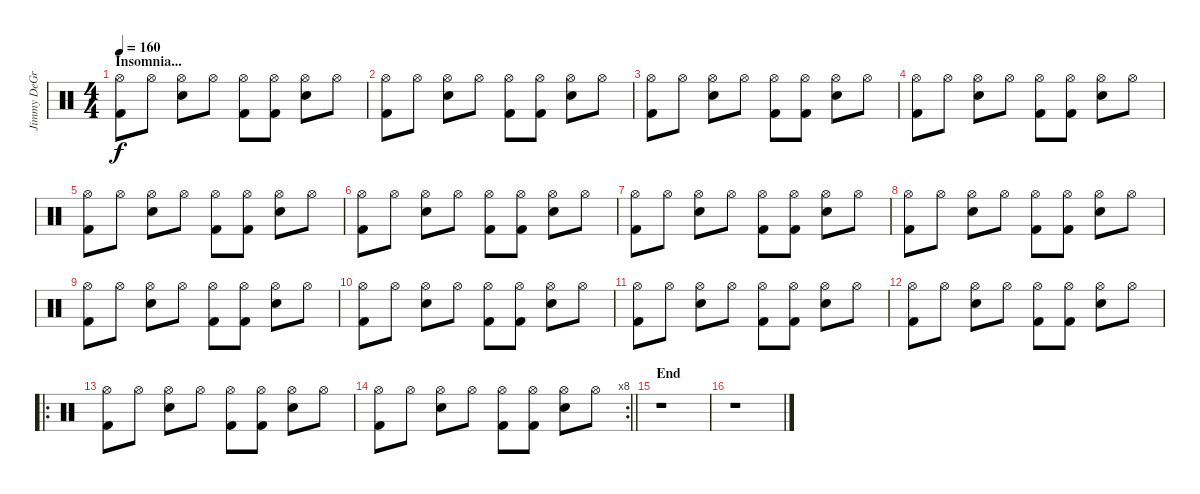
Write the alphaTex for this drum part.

\track ("Jimmy DeGrasso" "Jimmy DeGr") {instrument percussion}
\staff {score}
\articulation defaults
\ts (4 4)
\section ("" "Insomnia...")
\tempo 160
\clef neutral
\ks c
("Hi-Hat (open)" "Kick (hit) 2").8{dy f} "Hi-Hat (open)".8 ("Hi-Hat (open)" "Snare (hit) 2").8 "Hi-Hat (open)".8 ("Hi-Hat (open)" "Kick (hit) 2").8 ("Hi-Hat (open)" "Kick (hit) 2").8 ("Hi-Hat (open)" "Snare (hit) 2").8 "Hi-Hat (open)".8 |
("Hi-Hat (open)" "Kick (hit) 2").8 "Hi-Hat (open)".8 ("Hi-Hat (open)" "Snare (hit) 2").8 "Hi-Hat (open)".8 ("Hi-Hat (open)" "Kick (hit) 2").8 ("Hi-Hat (open)" "Kick (hit) 2").8 ("Hi-Hat (open)" "Snare (hit) 2").8 "Hi-Hat (open)".8 |
("Hi-Hat (open)" "Kick (hit) 2").8 "Hi-Hat (open)".8 ("Hi-Hat (open)" "Snare (hit) 2").8 "Hi-Hat (open)".8 ("Hi-Hat (open)" "Kick (hit) 2").8 ("Hi-Hat (open)" "Kick (hit) 2").8 ("Hi-Hat (open)" "Snare (hit) 2").8 "Hi-Hat (open)".8 |
("Hi-Hat (open)" "Kick (hit) 2").8 "Hi-Hat (open)".8 ("Hi-Hat (open)" "Snare (hit) 2").8 "Hi-Hat (open)".8 ("Hi-Hat (open)" "Kick (hit) 2").8 ("Hi-Hat (open)" "Kick (hit) 2").8 ("Hi-Hat (open)" "Snare (hit) 2").8 "Hi-Hat (open)".8 |
("Hi-Hat (open)" "Kick (hit) 2").8 "Hi-Hat (open)".8 ("Hi-Hat (open)" "Snare (hit) 2").8 "Hi-Hat (open)".8 ("Hi-Hat (open)" "Kick (hit) 2").8 ("Hi-Hat (open)" "Kick (hit) 2").8 ("Hi-Hat (open)" "Snare (hit) 2").8 "Hi-Hat (open)".8 |
("Hi-Hat (open)" "Kick (hit) 2").8 "Hi-Hat (open)".8 ("Hi-Hat (open)" "Snare (hit) 2").8 "Hi-Hat (open)".8 ("Hi-Hat (open)" "Kick (hit) 2").8 ("Hi-Hat (open)" "Kick (hit) 2").8 ("Hi-Hat (open)" "Snare (hit) 2").8 "Hi-Hat (open)".8 |
("Hi-Hat (open)" "Kick (hit) 2").8 "Hi-Hat (open)".8 ("Hi-Hat (open)" "Snare (hit) 2").8 "Hi-Hat (open)".8 ("Hi-Hat (open)" "Kick (hit) 2").8 ("Hi-Hat (open)" "Kick (hit) 2").8 ("Hi-Hat (open)" "Snare (hit) 2").8 "Hi-Hat (open)".8 |
("Hi-Hat (open)" "Kick (hit) 2").8 "Hi-Hat (open)".8 ("Hi-Hat (open)" "Snare (hit) 2").8 "Hi-Hat (open)".8 ("Hi-Hat (open)" "Kick (hit) 2").8 ("Hi-Hat (open)" "Kick (hit) 2").8 ("Hi-Hat (open)" "Snare (hit) 2").8 "Hi-Hat (open)".8 |
("Hi-Hat (open)" "Kick (hit) 2").8 "Hi-Hat (open)".8 ("Hi-Hat (open)" "Snare (hit) 2").8 "Hi-Hat (open)".8 ("Hi-Hat (open)" "Kick (hit) 2").8 ("Hi-Hat (open)" "Kick (hit) 2").8 ("Hi-Hat (open)" "Snare (hit) 2").8 "Hi-Hat (open)".8 |
("Hi-Hat (open)" "Kick (hit) 2").8 "Hi-Hat (open)".8 ("Hi-Hat (open)" "Snare (hit) 2").8 "Hi-Hat (open)".8 ("Hi-Hat (open)" "Kick (hit) 2").8 ("Hi-Hat (open)" "Kick (hit) 2").8 ("Hi-Hat (open)" "Snare (hit) 2").8 "Hi-Hat (open)".8 |
("Hi-Hat (open)" "Kick (hit) 2").8 "Hi-Hat (open)".8 ("Hi-Hat (open)" "Snare (hit) 2").8 "Hi-Hat (open)".8 ("Hi-Hat (open)" "Kick (hit) 2").8 ("Hi-Hat (open)" "Kick (hit) 2").8 ("Hi-Hat (open)" "Snare (hit) 2").8 "Hi-Hat (open)".8 |
("Hi-Hat (open)" "Kick (hit) 2").8 "Hi-Hat (open)".8 ("Hi-Hat (open)" "Snare (hit) 2").8 "Hi-Hat (open)".8 ("Hi-Hat (open)" "Kick (hit) 2").8 ("Hi-Hat (open)" "Kick (hit) 2").8 ("Hi-Hat (open)" "Snare (hit) 2").8 "Hi-Hat (open)".8 |
\ro
("Hi-Hat (open)" "Kick (hit) 2").8 "Hi-Hat (open)".8 ("Hi-Hat (open)" "Snare (hit) 2").8 "Hi-Hat (open)".8 ("Hi-Hat (open)" "Kick (hit) 2").8 ("Hi-Hat (open)" "Kick (hit) 2").8 ("Hi-Hat (open)" "Snare (hit) 2").8 "Hi-Hat (open)".8 |
\rc 8
\barLineRight lightlight
("Hi-Hat (open)" "Kick (hit) 2").8 "Hi-Hat (open)".8 ("Hi-Hat (open)" "Snare (hit) 2").8 "Hi-Hat (open)".8 ("Hi-Hat (open)" "Kick (hit) 2").8 ("Hi-Hat (open)" "Kick (hit) 2").8 ("Hi-Hat (open)" "Snare (hit) 2").8 "Hi-Hat (open)".8 |
\section ("" "End")
r.1 |
r.1
